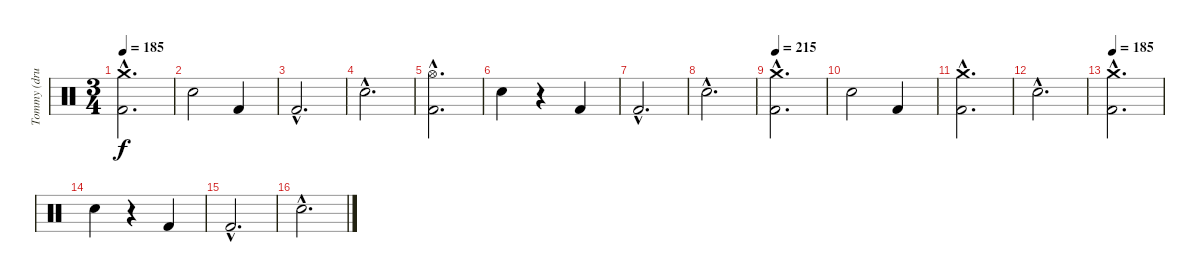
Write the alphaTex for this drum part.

\track ("Tommy (drums)" "Tommy (dru") {instrument percussion}
\staff {score}
\articulation defaults
\ts (3 4)
\tempo 185
\clef neutral
\ks c
("Crash medium (hit)"{hac} "Kick (hit) 2"{hac}).2{d dy f} |
"Electric Snare (hit)".2 "Kick (hit) 2".4 |
"Kick (hit) 2"{hac}.2{d} |
"Electric Snare (hit)"{hac}.2{d} |
("Hi-Hat (open)"{hac} "Kick (hit) 2"{hac}).2{d} |
"Electric Snare (hit)".4 r.4 "Kick (hit) 2".4 |
"Kick (hit) 2"{hac}.2{d} |
"Electric Snare (hit)"{hac}.2{d} |
\tempo 215
("Crash medium (hit)"{hac} "Kick (hit) 2"{hac}).2{d} |
"Electric Snare (hit)".2 "Kick (hit) 2".4 |
("Crash medium (hit)"{hac} "Kick (hit) 2"{hac}).2{d} |
"Electric Snare (hit)"{hac}.2{d} |
\tempo 185
("Crash medium (hit)"{hac} "Kick (hit) 2"{hac}).2{d} |
"Electric Snare (hit)".4 r.4 "Kick (hit) 2".4 |
"Kick (hit) 2"{hac}.2{d} |
"Electric Snare (hit)"{hac}.2{d}
